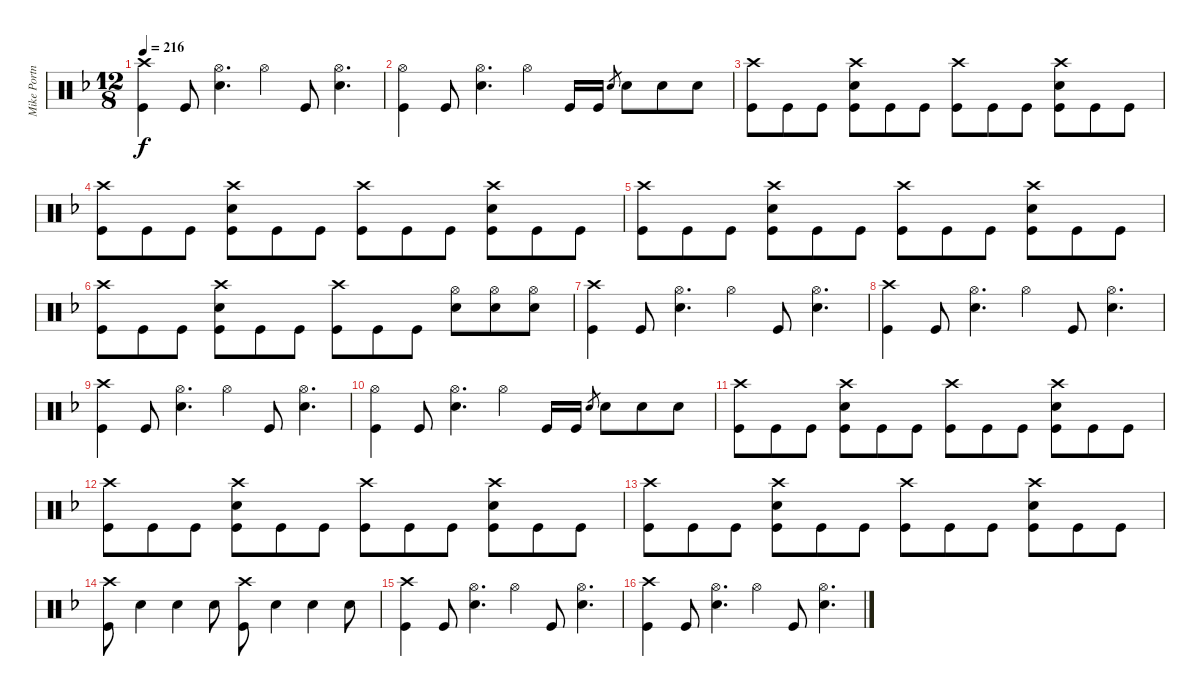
\track ("Mike Portnoy - Drums" "Mike Portn") {instrument percussion}
\staff {score}
\articulation defaults
\ts (12 8)
\tempo 216
\clef neutral
\ks dminor
("Crash high (hit)" "Kick (hit)").4{dy f} "Kick (hit)".8 ("Hi-Hat (open)" "Snare (hit) 2").4{d} "Hi-Hat (open)".4 "Kick (hit)".8 ("Hi-Hat (open)" "Snare (hit) 2").4{d} |
("Hi-Hat (open)" "Kick (hit)").4 "Kick (hit)".8 ("Hi-Hat (open)" "Snare (hit) 2").4{d} "Hi-Hat (open)".4 "Kick (hit)".16 "Kick (hit)".16 "Snare (hit) 2".8{gr} "Snare (hit) 2".8 "Snare (hit) 2".8 "Snare (hit) 2".8 |
("Crash high (hit)" "Kick (hit)").8 "Kick (hit)".8 "Kick (hit)".8 ("Crash high (hit)" "Snare (hit) 2" "Kick (hit)").8 "Kick (hit)".8 "Kick (hit)".8 ("Crash high (hit)" "Kick (hit)").8 "Kick (hit)".8 "Kick (hit)".8 ("Crash high (hit)" "Snare (hit) 2" "Kick (hit)").8 "Kick (hit)".8 "Kick (hit)".8 |
("Crash high (hit)" "Kick (hit)").8 "Kick (hit)".8 "Kick (hit)".8 ("Crash high (hit)" "Snare (hit) 2" "Kick (hit)").8 "Kick (hit)".8 "Kick (hit)".8 ("Crash high (hit)" "Kick (hit)").8 "Kick (hit)".8 "Kick (hit)".8 ("Crash high (hit)" "Snare (hit) 2" "Kick (hit)").8 "Kick (hit)".8 "Kick (hit)".8 |
("Crash high (hit)" "Kick (hit)").8 "Kick (hit)".8 "Kick (hit)".8 ("Crash high (hit)" "Snare (hit) 2" "Kick (hit)").8 "Kick (hit)".8 "Kick (hit)".8 ("Crash high (hit)" "Kick (hit)").8 "Kick (hit)".8 "Kick (hit)".8 ("Crash high (hit)" "Snare (hit) 2" "Kick (hit)").8 "Kick (hit)".8 "Kick (hit)".8 |
("Crash high (hit)" "Kick (hit)").8 "Kick (hit)".8 "Kick (hit)".8 ("Crash high (hit)" "Snare (hit) 2" "Kick (hit)").8 "Kick (hit)".8 "Kick (hit)".8 ("Crash high (hit)" "Kick (hit)").8 "Kick (hit)".8 "Kick (hit)".8 ("Hi-Hat (open)" "Snare (hit) 2").8 ("Hi-Hat (open)" "Snare (hit) 2").8 ("Hi-Hat (open)" "Snare (hit) 2").8 |
("Crash high (hit)" "Kick (hit)").4 "Kick (hit)".8 ("Hi-Hat (open)" "Snare (hit) 2").4{d} "Hi-Hat (open)".4 "Kick (hit)".8 ("Hi-Hat (open)" "Snare (hit) 2").4{d} |
("Crash high (hit)" "Kick (hit)").4 "Kick (hit)".8 ("Hi-Hat (open)" "Snare (hit) 2").4{d} "Hi-Hat (open)".4 "Kick (hit)".8 ("Hi-Hat (open)" "Snare (hit) 2").4{d} |
("Crash high (hit)" "Kick (hit)").4 "Kick (hit)".8 ("Hi-Hat (open)" "Snare (hit) 2").4{d} "Hi-Hat (open)".4 "Kick (hit)".8 ("Hi-Hat (open)" "Snare (hit) 2").4{d} |
("Hi-Hat (open)" "Kick (hit)").4 "Kick (hit)".8 ("Hi-Hat (open)" "Snare (hit) 2").4{d} "Hi-Hat (open)".4 "Kick (hit)".16 "Kick (hit)".16 "Snare (hit) 2".8{gr} "Snare (hit) 2".8 "Snare (hit) 2".8 "Snare (hit) 2".8 |
("Crash high (hit)" "Kick (hit)").8 "Kick (hit)".8 "Kick (hit)".8 ("Crash high (hit)" "Snare (hit) 2" "Kick (hit)").8 "Kick (hit)".8 "Kick (hit)".8 ("Crash high (hit)" "Kick (hit)").8 "Kick (hit)".8 "Kick (hit)".8 ("Crash high (hit)" "Snare (hit) 2" "Kick (hit)").8 "Kick (hit)".8 "Kick (hit)".8 |
("Crash high (hit)" "Kick (hit)").8 "Kick (hit)".8 "Kick (hit)".8 ("Crash high (hit)" "Snare (hit) 2" "Kick (hit)").8 "Kick (hit)".8 "Kick (hit)".8 ("Crash high (hit)" "Kick (hit)").8 "Kick (hit)".8 "Kick (hit)".8 ("Crash high (hit)" "Snare (hit) 2" "Kick (hit)").8 "Kick (hit)".8 "Kick (hit)".8 |
("Crash high (hit)" "Kick (hit)").8 "Kick (hit)".8 "Kick (hit)".8 ("Crash high (hit)" "Snare (hit) 2" "Kick (hit)").8 "Kick (hit)".8 "Kick (hit)".8 ("Crash high (hit)" "Kick (hit)").8 "Kick (hit)".8 "Kick (hit)".8 ("Crash high (hit)" "Snare (hit) 2" "Kick (hit)").8 "Kick (hit)".8 "Kick (hit)".8 |
("Crash high (hit)" "Kick (hit)").8 "Snare (hit) 2".4 "Snare (hit) 2".4 "Snare (hit) 2".8 ("Crash high (hit)" "Kick (hit)").8 "Snare (hit) 2".4 "Snare (hit) 2".4 "Snare (hit) 2".8 |
("Crash high (hit)" "Kick (hit)").4 "Kick (hit)".8 ("Hi-Hat (open)" "Snare (hit) 2").4{d} "Hi-Hat (open)".4 "Kick (hit)".8 ("Hi-Hat (open)" "Snare (hit) 2").4{d} |
("Crash high (hit)" "Kick (hit)").4 "Kick (hit)".8 ("Hi-Hat (open)" "Snare (hit) 2").4{d} "Hi-Hat (open)".4 "Kick (hit)".8 ("Hi-Hat (open)" "Snare (hit) 2").4{d}
